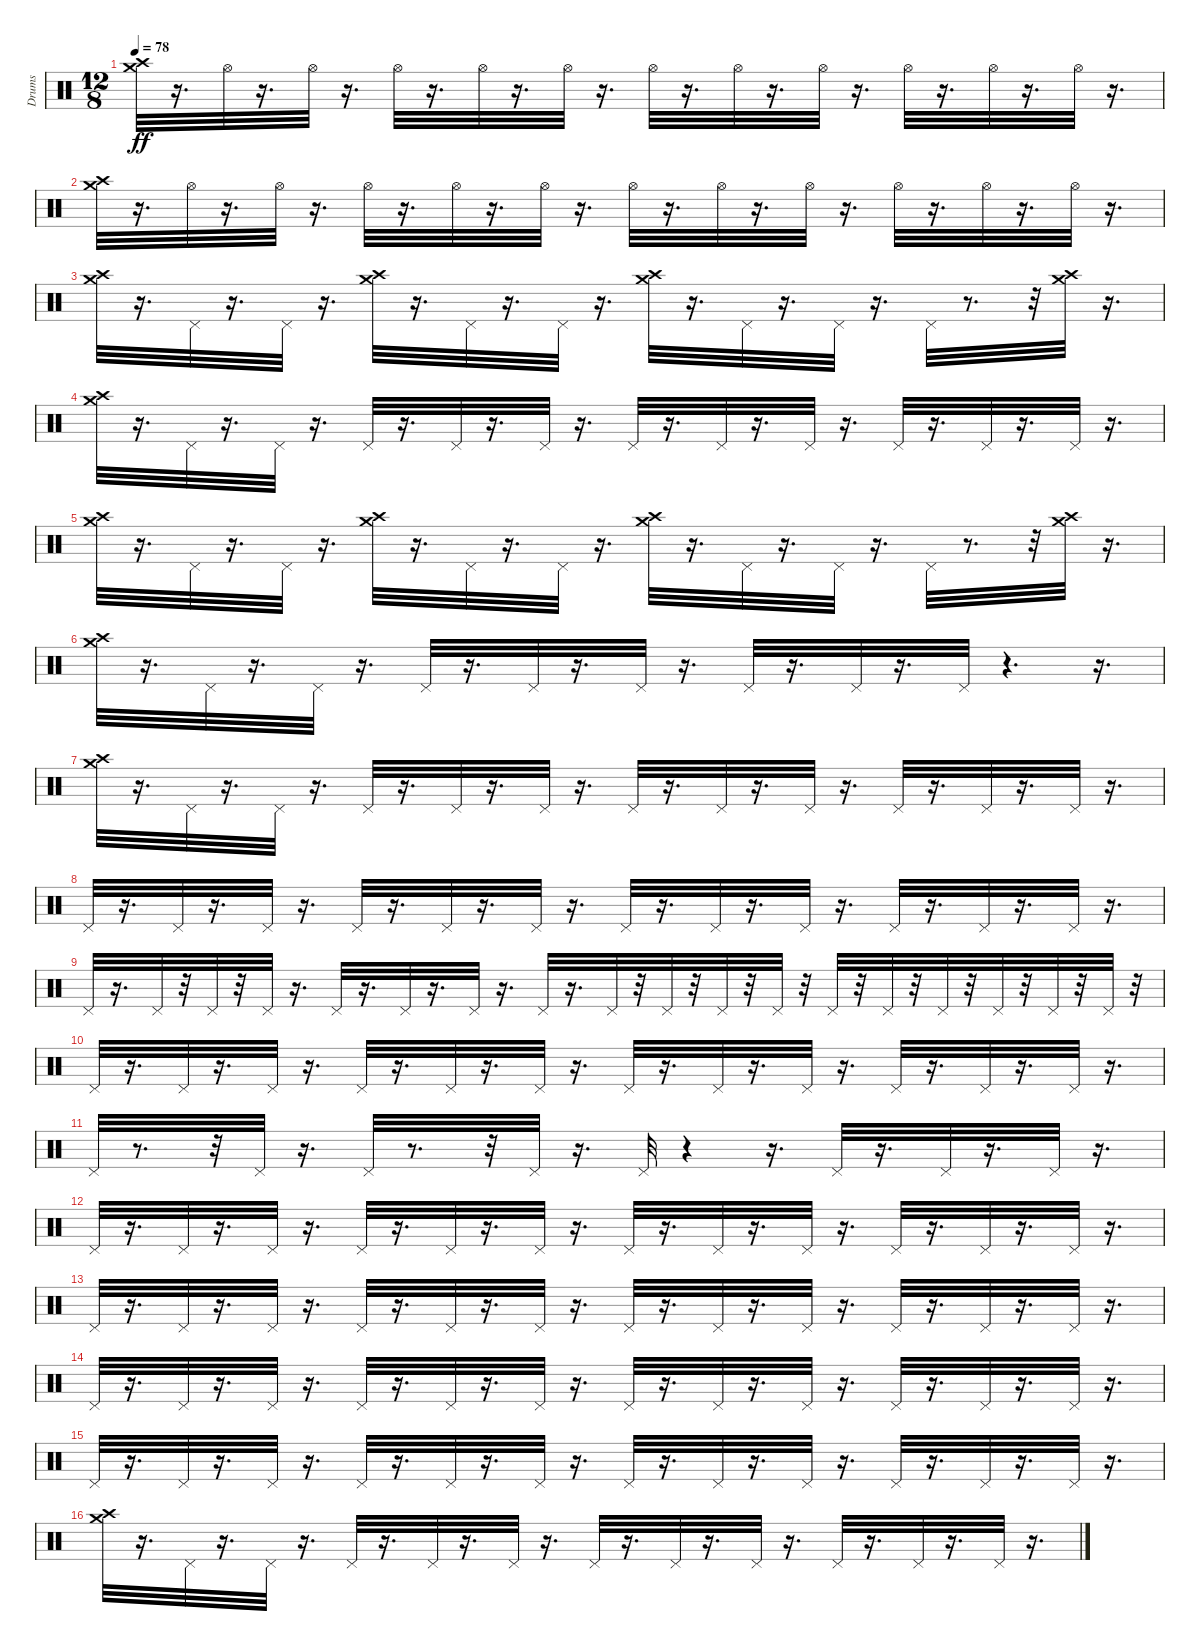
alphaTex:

\track ("Drums" "Drums") {instrument percussion}
\staff {score}
\articulation defaults
\ts (12 8)
\tempo 78
\clef neutral
\ks c
("Crash high (hit)" "Crash medium (hit)").32{dy ff} r.16{d} "Hi-Hat (open)".32 r.16{d} "Hi-Hat (open)".32 r.16{d} "Hi-Hat (open)".32 r.16{d} "Hi-Hat (open)".32 r.16{d} "Hi-Hat (open)".32 r.16{d} "Hi-Hat (open)".32 r.16{d} "Hi-Hat (open)".32 r.16{d} "Hi-Hat (open)".32 r.16{d} "Hi-Hat (open)".32 r.16{d} "Hi-Hat (open)".32 r.16{d} "Hi-Hat (open)".32 r.16{d} |
("Crash medium (hit)" "Crash high (hit)").32 r.16{d} "Hi-Hat (open)".32 r.16{d} "Hi-Hat (open)".32 r.16{d} "Hi-Hat (open)".32 r.16{d} "Hi-Hat (open)".32 r.16{d} "Hi-Hat (open)".32 r.16{d} "Hi-Hat (open)".32 r.16{d} "Hi-Hat (open)".32 r.16{d} "Hi-Hat (open)".32 r.16{d} "Hi-Hat (open)".32 r.16{d} "Hi-Hat (open)".32 r.16{d} "Hi-Hat (open)".32 r.16{d} |
("Crash medium (hit)" "Crash high (hit)").32 r.16{d} "Pedal Hi-Hat (hit)".32 r.16{d} "Pedal Hi-Hat (hit)".32 r.16{d} ("Crash high (hit)" "Crash medium (hit)").32 r.16{d} "Pedal Hi-Hat (hit)".32 r.16{d} "Pedal Hi-Hat (hit)".32 r.16{d} ("Crash medium (hit)" "Crash high (hit)").32 r.16{d} "Pedal Hi-Hat (hit)".32 r.16{d} "Pedal Hi-Hat (hit)".32 r.16{d} "Pedal Hi-Hat (hit)".32 r.8{d} r.32 ("Crash high (hit)" "Crash medium (hit)").32 r.16{d} |
("Crash high (hit)" "Crash medium (hit)").32 r.16{d} "Pedal Hi-Hat (hit)".32 r.16{d} "Pedal Hi-Hat (hit)".32 r.16{d} "Pedal Hi-Hat (hit)".32 r.16{d} "Pedal Hi-Hat (hit)".32 r.16{d} "Pedal Hi-Hat (hit)".32 r.16{d} "Pedal Hi-Hat (hit)".32 r.16{d} "Pedal Hi-Hat (hit)".32 r.16{d} "Pedal Hi-Hat (hit)".32 r.16{d} "Pedal Hi-Hat (hit)".32 r.16{d} "Pedal Hi-Hat (hit)".32 r.16{d} "Pedal Hi-Hat (hit)".32 r.16{d} |
("Crash high (hit)" "Crash medium (hit)").32 r.16{d} "Pedal Hi-Hat (hit)".32 r.16{d} "Pedal Hi-Hat (hit)".32 r.16{d} ("Crash medium (hit)" "Crash high (hit)").32 r.16{d} "Pedal Hi-Hat (hit)".32 r.16{d} "Pedal Hi-Hat (hit)".32 r.16{d} ("Crash medium (hit)" "Crash high (hit)").32 r.16{d} "Pedal Hi-Hat (hit)".32 r.16{d} "Pedal Hi-Hat (hit)".32 r.16{d} "Pedal Hi-Hat (hit)".32 r.8{d} r.32 ("Crash high (hit)" "Crash medium (hit)").32 r.16{d} |
("Crash medium (hit)" "Crash high (hit)").32 r.16{d} "Pedal Hi-Hat (hit)".32 r.16{d} "Pedal Hi-Hat (hit)".32 r.16{d} "Pedal Hi-Hat (hit)".32 r.16{d} "Pedal Hi-Hat (hit)".32 r.16{d} "Pedal Hi-Hat (hit)".32 r.16{d} "Pedal Hi-Hat (hit)".32 r.16{d} "Pedal Hi-Hat (hit)".32 r.16{d} "Pedal Hi-Hat (hit)".32 r.4{d} r.16{d} |
("Crash high (hit)" "Crash medium (hit)").32 r.16{d} "Pedal Hi-Hat (hit)".32 r.16{d} "Pedal Hi-Hat (hit)".32 r.16{d} "Pedal Hi-Hat (hit)".32 r.16{d} "Pedal Hi-Hat (hit)".32 r.16{d} "Pedal Hi-Hat (hit)".32 r.16{d} "Pedal Hi-Hat (hit)".32 r.16{d} "Pedal Hi-Hat (hit)".32 r.16{d} "Pedal Hi-Hat (hit)".32 r.16{d} "Pedal Hi-Hat (hit)".32 r.16{d} "Pedal Hi-Hat (hit)".32 r.16{d} "Pedal Hi-Hat (hit)".32 r.16{d} |
"Pedal Hi-Hat (hit)".32 r.16{d} "Pedal Hi-Hat (hit)".32 r.16{d} "Pedal Hi-Hat (hit)".32 r.16{d} "Pedal Hi-Hat (hit)".32 r.16{d} "Pedal Hi-Hat (hit)".32 r.16{d} "Pedal Hi-Hat (hit)".32 r.16{d} "Pedal Hi-Hat (hit)".32 r.16{d} "Pedal Hi-Hat (hit)".32 r.16{d} "Pedal Hi-Hat (hit)".32 r.16{d} "Pedal Hi-Hat (hit)".32 r.16{d} "Pedal Hi-Hat (hit)".32 r.16{d} "Pedal Hi-Hat (hit)".32 r.16{d} |
"Pedal Hi-Hat (hit)".32 r.16{d} "Pedal Hi-Hat (hit)".32 r.32 "Pedal Hi-Hat (hit)".32 r.32 "Pedal Hi-Hat (hit)".32 r.16{d} "Pedal Hi-Hat (hit)".32 r.16{d} "Pedal Hi-Hat (hit)".32 r.16{d} "Pedal Hi-Hat (hit)".32 r.16{d} "Pedal Hi-Hat (hit)".32 r.16{d} "Pedal Hi-Hat (hit)".32 r.32 "Pedal Hi-Hat (hit)".32 r.32 "Pedal Hi-Hat (hit)".32 r.32 "Pedal Hi-Hat (hit)".32 r.32 "Pedal Hi-Hat (hit)".32 r.32 "Pedal Hi-Hat (hit)".32 r.32 "Pedal Hi-Hat (hit)".32 r.32 "Pedal Hi-Hat (hit)".32 r.32 "Pedal Hi-Hat (hit)".32 r.32 "Pedal Hi-Hat (hit)".32 r.32 |
"Pedal Hi-Hat (hit)".32 r.16{d} "Pedal Hi-Hat (hit)".32 r.16{d} "Pedal Hi-Hat (hit)".32 r.16{d} "Pedal Hi-Hat (hit)".32 r.16{d} "Pedal Hi-Hat (hit)".32 r.16{d} "Pedal Hi-Hat (hit)".32 r.16{d} "Pedal Hi-Hat (hit)".32 r.16{d} "Pedal Hi-Hat (hit)".32 r.16{d} "Pedal Hi-Hat (hit)".32 r.16{d} "Pedal Hi-Hat (hit)".32 r.16{d} "Pedal Hi-Hat (hit)".32 r.16{d} "Pedal Hi-Hat (hit)".32 r.16{d} |
"Pedal Hi-Hat (hit)".32 r.8{d} r.32 "Pedal Hi-Hat (hit)".32 r.16{d} "Pedal Hi-Hat (hit)".32 r.8{d} r.32 "Pedal Hi-Hat (hit)".32 r.16{d} "Pedal Hi-Hat (hit)".32 r.4 r.16{d} "Pedal Hi-Hat (hit)".32 r.16{d} "Pedal Hi-Hat (hit)".32 r.16{d} "Pedal Hi-Hat (hit)".32 r.16{d} |
"Pedal Hi-Hat (hit)".32 r.16{d} "Pedal Hi-Hat (hit)".32 r.16{d} "Pedal Hi-Hat (hit)".32 r.16{d} "Pedal Hi-Hat (hit)".32 r.16{d} "Pedal Hi-Hat (hit)".32 r.16{d} "Pedal Hi-Hat (hit)".32 r.16{d} "Pedal Hi-Hat (hit)".32 r.16{d} "Pedal Hi-Hat (hit)".32 r.16{d} "Pedal Hi-Hat (hit)".32 r.16{d} "Pedal Hi-Hat (hit)".32 r.16{d} "Pedal Hi-Hat (hit)".32 r.16{d} "Pedal Hi-Hat (hit)".32 r.16{d} |
"Pedal Hi-Hat (hit)".32 r.16{d} "Pedal Hi-Hat (hit)".32 r.16{d} "Pedal Hi-Hat (hit)".32 r.16{d} "Pedal Hi-Hat (hit)".32 r.16{d} "Pedal Hi-Hat (hit)".32 r.16{d} "Pedal Hi-Hat (hit)".32 r.16{d} "Pedal Hi-Hat (hit)".32 r.16{d} "Pedal Hi-Hat (hit)".32 r.16{d} "Pedal Hi-Hat (hit)".32 r.16{d} "Pedal Hi-Hat (hit)".32 r.16{d} "Pedal Hi-Hat (hit)".32 r.16{d} "Pedal Hi-Hat (hit)".32 r.16{d} |
"Pedal Hi-Hat (hit)".32 r.16{d} "Pedal Hi-Hat (hit)".32 r.16{d} "Pedal Hi-Hat (hit)".32 r.16{d} "Pedal Hi-Hat (hit)".32 r.16{d} "Pedal Hi-Hat (hit)".32 r.16{d} "Pedal Hi-Hat (hit)".32 r.16{d} "Pedal Hi-Hat (hit)".32 r.16{d} "Pedal Hi-Hat (hit)".32 r.16{d} "Pedal Hi-Hat (hit)".32 r.16{d} "Pedal Hi-Hat (hit)".32 r.16{d} "Pedal Hi-Hat (hit)".32 r.16{d} "Pedal Hi-Hat (hit)".32 r.16{d} |
"Pedal Hi-Hat (hit)".32 r.16{d} "Pedal Hi-Hat (hit)".32 r.16{d} "Pedal Hi-Hat (hit)".32 r.16{d} "Pedal Hi-Hat (hit)".32 r.16{d} "Pedal Hi-Hat (hit)".32 r.16{d} "Pedal Hi-Hat (hit)".32 r.16{d} "Pedal Hi-Hat (hit)".32 r.16{d} "Pedal Hi-Hat (hit)".32 r.16{d} "Pedal Hi-Hat (hit)".32 r.16{d} "Pedal Hi-Hat (hit)".32 r.16{d} "Pedal Hi-Hat (hit)".32 r.16{d} "Pedal Hi-Hat (hit)".32 r.16{d} |
("Crash high (hit)" "Crash medium (hit)").32 r.16{d} "Pedal Hi-Hat (hit)".32 r.16{d} "Pedal Hi-Hat (hit)".32 r.16{d} "Pedal Hi-Hat (hit)".32 r.16{d} "Pedal Hi-Hat (hit)".32 r.16{d} "Pedal Hi-Hat (hit)".32 r.16{d} "Pedal Hi-Hat (hit)".32 r.16{d} "Pedal Hi-Hat (hit)".32 r.16{d} "Pedal Hi-Hat (hit)".32 r.16{d} "Pedal Hi-Hat (hit)".32 r.16{d} "Pedal Hi-Hat (hit)".32 r.16{d} "Pedal Hi-Hat (hit)".32 r.16{d}
